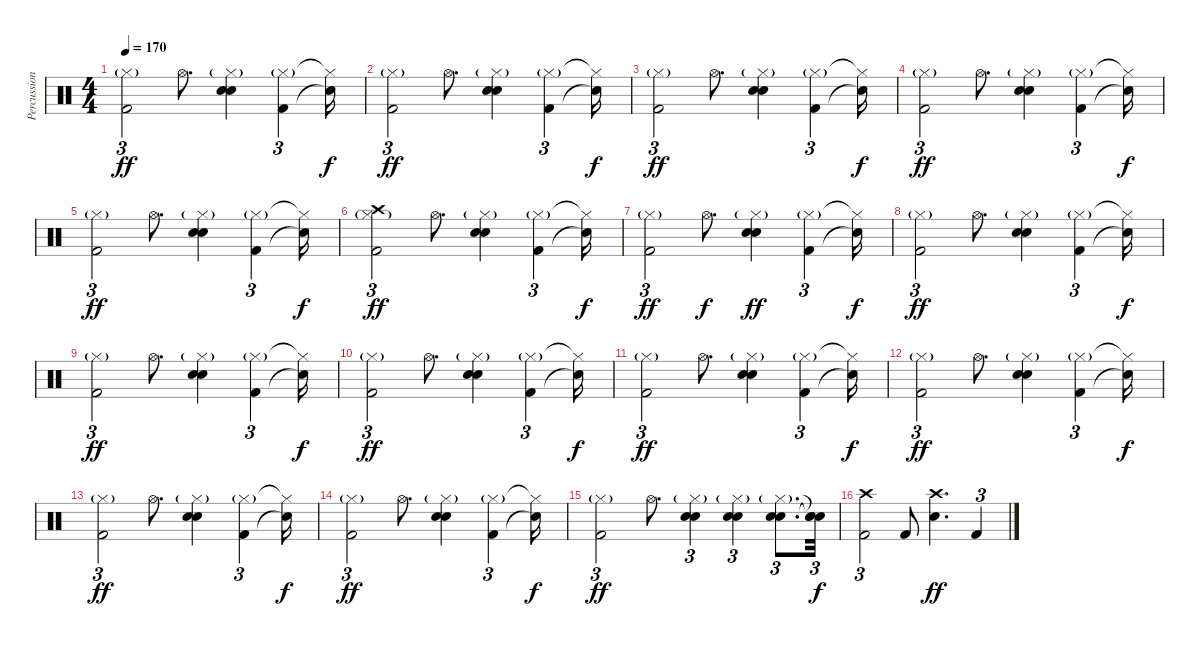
\track ("Percussion" "Percussion") {instrument percussion bank 127}
\staff {score}
\articulation defaults
\ts (4 4)
\tempo 170
\clef neutral
\ks c
("Hi-Hat (closed)"{g} "Kick (hit) 2").2{tu (3 2) dy ff} "Hi-Hat (open)".8{d} ("Hi-Hat (closed)"{g} "Snare (hit) 2" "Electric Snare (hit)").4 ("Hi-Hat (closed)"{g} "Kick (hit) 2").4{tu (3 2)} ("Hi-Hat (closed)"{t} "Snare (hit)"{t}).16{dy f} |
("Hi-Hat (closed)"{g} "Kick (hit) 2").2{tu (3 2) dy ff} "Hi-Hat (open)".8{d} ("Hi-Hat (closed)"{g} "Snare (hit) 2" "Electric Snare (hit)").4 ("Hi-Hat (closed)"{g} "Kick (hit) 2").4{tu (3 2)} ("Hi-Hat (closed)"{t} "Snare (hit)"{t}).16{dy f} |
("Hi-Hat (closed)"{g} "Kick (hit) 2").2{tu (3 2) dy ff} "Hi-Hat (open)".8{d} ("Hi-Hat (closed)"{g} "Snare (hit) 2" "Electric Snare (hit)").4 ("Hi-Hat (closed)"{g} "Kick (hit) 2").4{tu (3 2)} ("Hi-Hat (closed)"{t} "Snare (hit)"{t}).16{dy f} |
("Hi-Hat (closed)"{g} "Kick (hit) 2").2{tu (3 2) dy ff} "Hi-Hat (open)".8{d} ("Hi-Hat (closed)"{g} "Snare (hit) 2" "Electric Snare (hit)").4 ("Hi-Hat (closed)"{g} "Kick (hit) 2").4{tu (3 2)} ("Hi-Hat (closed)"{t} "Snare (hit)"{t}).16{dy f} |
("Hi-Hat (closed)"{g} "Kick (hit) 2").2{tu (3 2) dy ff} "Hi-Hat (open)".8{d} ("Hi-Hat (closed)"{g} "Snare (hit) 2" "Electric Snare (hit)").4 ("Hi-Hat (closed)"{g} "Kick (hit) 2").4{tu (3 2)} ("Hi-Hat (closed)"{t} "Snare (hit)"{t}).16{dy f} |
("Hi-Hat (closed)"{g} "Kick (hit) 2" "Crash high (hit)").2{tu (3 2) dy ff} "Hi-Hat (open)".8{d} ("Hi-Hat (closed)"{g} "Snare (hit) 2" "Electric Snare (hit)").4 ("Hi-Hat (closed)"{g} "Kick (hit) 2").4{tu (3 2)} ("Hi-Hat (closed)"{t} "Snare (hit)"{t}).16{dy f} |
("Hi-Hat (closed)"{g} "Kick (hit) 2").2{tu (3 2) dy ff} "Hi-Hat (open)".8{d dy f} ("Hi-Hat (closed)"{g} "Snare (hit) 2" "Electric Snare (hit)").4{dy ff} ("Hi-Hat (closed)"{g} "Kick (hit) 2").4{tu (3 2)} ("Hi-Hat (closed)"{t} "Snare (hit)"{t}).16{dy f} |
("Hi-Hat (closed)"{g} "Kick (hit) 2").2{tu (3 2) dy ff} "Hi-Hat (open)".8{d} ("Hi-Hat (closed)"{g} "Snare (hit) 2" "Electric Snare (hit)").4 ("Hi-Hat (closed)"{g} "Kick (hit) 2").4{tu (3 2)} ("Hi-Hat (closed)"{t} "Snare (hit)"{t}).16{dy f} |
("Hi-Hat (closed)"{g} "Kick (hit) 2").2{tu (3 2) dy ff} "Hi-Hat (open)".8{d} ("Hi-Hat (closed)"{g} "Snare (hit) 2" "Electric Snare (hit)").4 ("Hi-Hat (closed)"{g} "Kick (hit) 2").4{tu (3 2)} ("Hi-Hat (closed)"{t} "Snare (hit)"{t}).16{dy f} |
("Hi-Hat (closed)"{g} "Kick (hit) 2").2{tu (3 2) dy ff} "Hi-Hat (open)".8{d} ("Hi-Hat (closed)"{g} "Snare (hit) 2" "Electric Snare (hit)").4 ("Hi-Hat (closed)"{g} "Kick (hit) 2").4{tu (3 2)} ("Hi-Hat (closed)"{t} "Snare (hit)"{t}).16{dy f} |
("Hi-Hat (closed)"{g} "Kick (hit) 2").2{tu (3 2) dy ff} "Hi-Hat (open)".8{d} ("Hi-Hat (closed)"{g} "Snare (hit) 2" "Electric Snare (hit)").4 ("Hi-Hat (closed)"{g} "Kick (hit) 2").4{tu (3 2)} ("Hi-Hat (closed)"{t} "Snare (hit)"{t}).16{dy f} |
("Hi-Hat (closed)"{g} "Kick (hit) 2").2{tu (3 2) dy ff} "Hi-Hat (open)".8{d} ("Hi-Hat (closed)"{g} "Snare (hit) 2" "Electric Snare (hit)").4 ("Hi-Hat (closed)"{g} "Kick (hit) 2").4{tu (3 2)} ("Hi-Hat (closed)"{t} "Snare (hit)"{t}).16{dy f} |
("Hi-Hat (closed)"{g} "Kick (hit) 2").2{tu (3 2) dy ff} "Hi-Hat (open)".8{d} ("Hi-Hat (closed)"{g} "Snare (hit) 2" "Electric Snare (hit)").4 ("Hi-Hat (closed)"{g} "Kick (hit) 2").4{tu (3 2)} ("Hi-Hat (closed)"{t} "Snare (hit)"{t}).16{dy f} |
("Hi-Hat (closed)"{g} "Kick (hit) 2").2{tu (3 2) dy ff} "Hi-Hat (open)".8{d} ("Hi-Hat (closed)"{g} "Snare (hit) 2" "Electric Snare (hit)").4 ("Hi-Hat (closed)"{g} "Kick (hit) 2").4{tu (3 2)} ("Hi-Hat (closed)"{t} "Snare (hit)"{t}).16{dy f} |
("Hi-Hat (closed)"{g} "Kick (hit) 2").2{tu (3 2) dy ff} "Hi-Hat (open)".8{d} ("Hi-Hat (closed)"{g} "Snare (hit) 2" "Electric Snare (hit)").4{tu (3 2)} ("Hi-Hat (closed)"{g} "Snare (hit) 2" "Electric Snare (hit)").4{tu (3 2)} ("Hi-Hat (closed)"{g} "Snare (hit) 2" "Electric Snare (hit)").8{d tu (3 2)} ("Snare (hit)"{t} "Snare (hit)"{t} "Snare (hit)"{t}).32{tu (3 2) dy f} |
("Crash high (hit)" "Kick (hit) 2").2{tu (3 2)} "Kick (hit) 2".8 ("Crash high (hit)" "Snare (hit) 2").4{d dy ff} "Kick (hit) 2".4{tu (3 2)}
